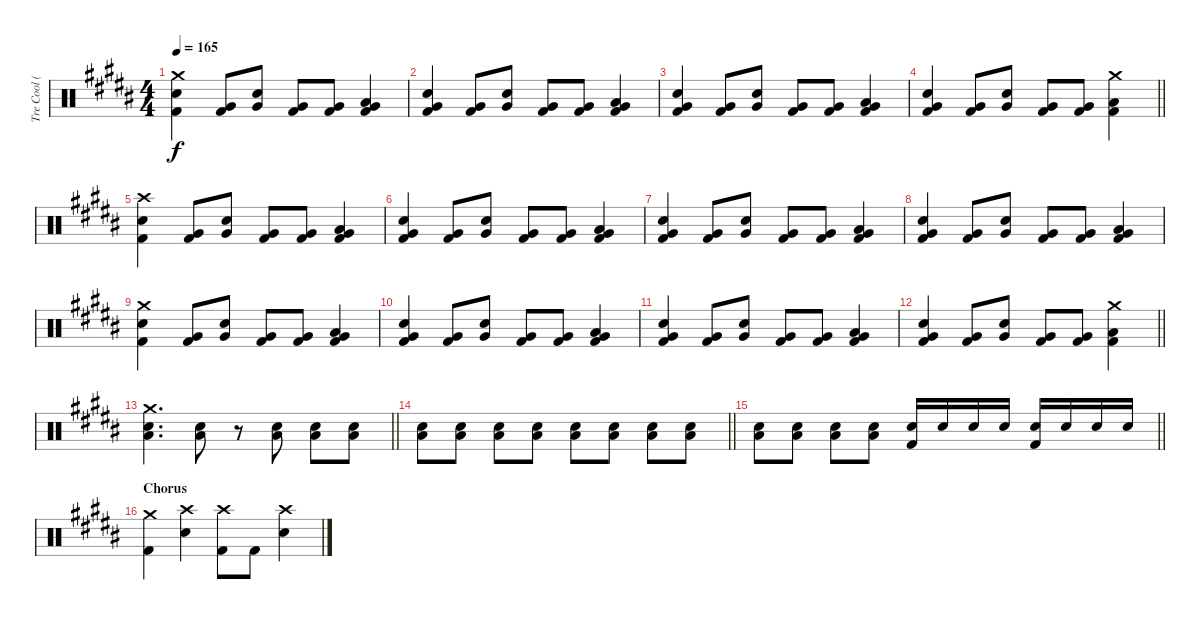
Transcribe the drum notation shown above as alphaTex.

\track ("Tre Cool (Drums)" "Tre Cool (") {instrument percussion}
\staff {score}
\articulation defaults
\ts (4 4)
\tempo 165
\clef neutral
\ks b
("Crash medium (hit)" "Electric Snare (hit)" "Kick (hit) 2").4{dy f} ("Very Low Tom (hit)" "Kick (hit) 2").8 ("Very Low Tom (hit)" "Electric Snare (hit)").8 ("Very Low Tom (hit)" "Kick (hit) 2").8 ("Very Low Tom (hit)" "Kick (hit) 2").8 ("Very Low Tom (hit)" "Low Tom (hit)" "Kick (hit) 2").4 |
("Very Low Tom (hit)" "Electric Snare (hit)" "Kick (hit) 2").4 ("Very Low Tom (hit)" "Kick (hit) 2").8 ("Very Low Tom (hit)" "Electric Snare (hit)").8 ("Very Low Tom (hit)" "Kick (hit) 2").8 ("Very Low Tom (hit)" "Kick (hit) 2").8 ("Very Low Tom (hit)" "Low Tom (hit)" "Kick (hit) 2").4 |
("Very Low Tom (hit)" "Electric Snare (hit)" "Kick (hit) 2").4 ("Very Low Tom (hit)" "Kick (hit) 2").8 ("Very Low Tom (hit)" "Electric Snare (hit)").8 ("Very Low Tom (hit)" "Kick (hit) 2").8 ("Very Low Tom (hit)" "Kick (hit) 2").8 ("Very Low Tom (hit)" "Low Tom (hit)" "Kick (hit) 2").4 |
\barLineRight lightlight
("Very Low Tom (hit)" "Electric Snare (hit)" "Kick (hit) 2").4 ("Very Low Tom (hit)" "Kick (hit) 2").8 ("Very Low Tom (hit)" "Electric Snare (hit)").8 ("Very Low Tom (hit)" "Kick (hit) 2").8 ("Very Low Tom (hit)" "Kick (hit) 2").8 ("Crash medium (hit)" "Low Tom (hit)" "Kick (hit) 2").4 |
("Crash high (hit)" "Electric Snare (hit)" "Kick (hit) 2").4 ("Very Low Tom (hit)" "Kick (hit) 2").8 ("Very Low Tom (hit)" "Electric Snare (hit)").8 ("Very Low Tom (hit)" "Kick (hit) 2").8 ("Very Low Tom (hit)" "Kick (hit) 2").8 ("Very Low Tom (hit)" "Low Tom (hit)" "Kick (hit) 2").4 |
("Very Low Tom (hit)" "Electric Snare (hit)" "Kick (hit) 2").4 ("Very Low Tom (hit)" "Kick (hit) 2").8 ("Very Low Tom (hit)" "Electric Snare (hit)").8 ("Very Low Tom (hit)" "Kick (hit) 2").8 ("Very Low Tom (hit)" "Kick (hit) 2").8 ("Very Low Tom (hit)" "Low Tom (hit)" "Kick (hit) 2").4 |
("Very Low Tom (hit)" "Electric Snare (hit)" "Kick (hit) 2").4 ("Very Low Tom (hit)" "Kick (hit) 2").8 ("Very Low Tom (hit)" "Electric Snare (hit)").8 ("Very Low Tom (hit)" "Kick (hit) 2").8 ("Very Low Tom (hit)" "Kick (hit) 2").8 ("Very Low Tom (hit)" "Low Tom (hit)" "Kick (hit) 2").4 |
("Very Low Tom (hit)" "Electric Snare (hit)" "Kick (hit) 2").4 ("Very Low Tom (hit)" "Kick (hit) 2").8 ("Very Low Tom (hit)" "Electric Snare (hit)").8 ("Very Low Tom (hit)" "Kick (hit) 2").8 ("Very Low Tom (hit)" "Kick (hit) 2").8 ("Very Low Tom (hit)" "Low Tom (hit)" "Kick (hit) 2").4 |
("Crash medium (hit)" "Electric Snare (hit)" "Kick (hit) 2").4 ("Very Low Tom (hit)" "Kick (hit) 2").8 ("Very Low Tom (hit)" "Electric Snare (hit)").8 ("Very Low Tom (hit)" "Kick (hit) 2").8 ("Very Low Tom (hit)" "Kick (hit) 2").8 ("Very Low Tom (hit)" "Low Tom (hit)" "Kick (hit) 2").4 |
("Very Low Tom (hit)" "Electric Snare (hit)" "Kick (hit) 2").4 ("Very Low Tom (hit)" "Kick (hit) 2").8 ("Very Low Tom (hit)" "Electric Snare (hit)").8 ("Very Low Tom (hit)" "Kick (hit) 2").8 ("Very Low Tom (hit)" "Kick (hit) 2").8 ("Very Low Tom (hit)" "Low Tom (hit)" "Kick (hit) 2").4 |
("Very Low Tom (hit)" "Electric Snare (hit)" "Kick (hit) 2").4 ("Very Low Tom (hit)" "Kick (hit) 2").8 ("Very Low Tom (hit)" "Electric Snare (hit)").8 ("Very Low Tom (hit)" "Kick (hit) 2").8 ("Very Low Tom (hit)" "Kick (hit) 2").8 ("Very Low Tom (hit)" "Low Tom (hit)" "Kick (hit) 2").4 |
\barLineRight lightlight
("Very Low Tom (hit)" "Electric Snare (hit)" "Kick (hit) 2").4 ("Very Low Tom (hit)" "Kick (hit) 2").8 ("Very Low Tom (hit)" "Electric Snare (hit)").8 ("Very Low Tom (hit)" "Kick (hit) 2").8 ("Very Low Tom (hit)" "Kick (hit) 2").8 ("Crash medium (hit)" "Low Tom (hit)" "Kick (hit) 2").4 |
\barLineRight lightlight
("Crash medium (hit)" "Low Tom (hit)" "Electric Snare (hit)").4{d} ("Low Tom (hit)" "Electric Snare (hit)").8 r.8 ("Low Tom (hit)" "Electric Snare (hit)").8 ("Low Tom (hit)" "Electric Snare (hit)").8 ("Low Tom (hit)" "Electric Snare (hit)").8 |
\barLineRight lightlight
("Low Tom (hit)" "Electric Snare (hit)").8 ("Low Tom (hit)" "Electric Snare (hit)").8 ("Low Tom (hit)" "Electric Snare (hit)").8 ("Low Tom (hit)" "Electric Snare (hit)").8 ("Low Tom (hit)" "Electric Snare (hit)").8 ("Low Tom (hit)" "Electric Snare (hit)").8 ("Low Tom (hit)" "Electric Snare (hit)").8 ("Low Tom (hit)" "Electric Snare (hit)").8 |
\barLineRight lightlight
("Low Tom (hit)" "Electric Snare (hit)").8 ("Low Tom (hit)" "Electric Snare (hit)").8 ("Low Tom (hit)" "Electric Snare (hit)").8 ("Low Tom (hit)" "Electric Snare (hit)").8 ("Electric Snare (hit)" "Kick (hit) 2").16 "Electric Snare (hit)".16 "Electric Snare (hit)".16 "Electric Snare (hit)".16 ("Electric Snare (hit)" "Kick (hit) 2").16 "Electric Snare (hit)".16 "Electric Snare (hit)".16 "Electric Snare (hit)".16 |
\section ("" "Chorus")
("Crash medium (hit)" "Kick (hit) 2").4 ("Crash high (hit)" "Electric Snare (hit)").4 ("Crash high (hit)" "Kick (hit) 2").8 "Kick (hit) 2".8 ("Crash high (hit)" "Electric Snare (hit)").4
